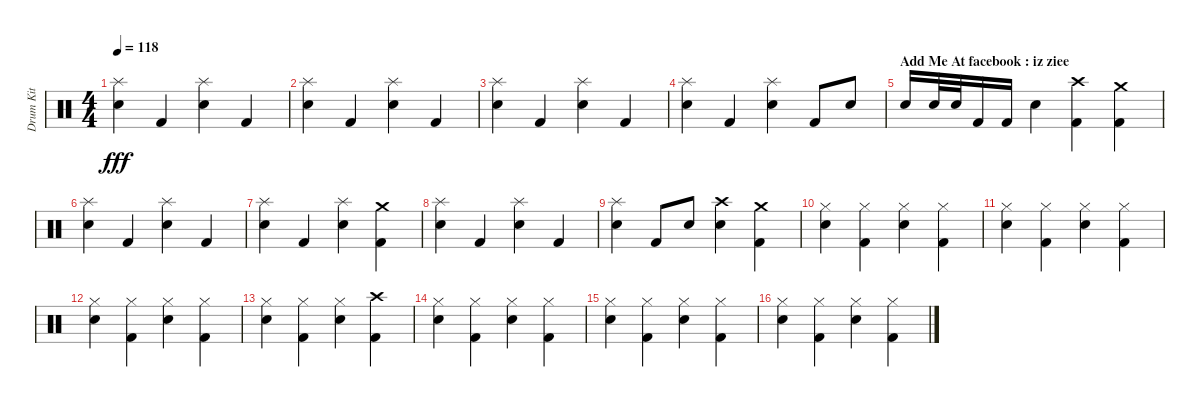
\track ("Drum Kit" "Drum Kit") {instrument percussion}
\staff {score}
\articulation defaults
\ts (4 4)
\tempo 118
\clef neutral
\ks c
("Electric Snare (hit)" "Splash (hit)").4{dy fff} "Kick (hit) 2".4 ("Electric Snare (hit)" "Splash (hit)").4 "Kick (hit) 2".4 |
("Splash (hit)" "Electric Snare (hit)").4 "Kick (hit) 2".4 ("Electric Snare (hit)" "Splash (hit)").4 "Kick (hit) 2".4 |
("Electric Snare (hit)" "Splash (hit)").4 "Kick (hit) 2".4 ("Electric Snare (hit)" "Splash (hit)").4 "Kick (hit) 2".4 |
("Electric Snare (hit)" "Splash (hit)").4 "Kick (hit) 2".4 ("Splash (hit)" "Electric Snare (hit)").4 "Kick (hit) 2".8 "Electric Snare (hit)".8 |
\section ("" "Add Me At facebook : iz ziee")
"Electric Snare (hit)".16 "Electric Snare (hit)".32 "Electric Snare (hit)".32 "Kick (hit) 2".16 "Kick (hit) 2".16 "Electric Snare (hit)".4 ("Kick (hit) 2" "Crash high (hit)").4 ("Crash medium (hit)" "Kick (hit) 2").4 |
("Splash (hit)" "Electric Snare (hit)").4 "Kick (hit) 2".4 ("Electric Snare (hit)" "Splash (hit)").4 "Kick (hit) 2".4 |
("Electric Snare (hit)" "Splash (hit)").4 "Kick (hit) 2".4 ("Splash (hit)" "Electric Snare (hit)").4 ("Kick (hit) 2" "Crash medium (hit)").4 |
("Electric Snare (hit)" "Splash (hit)").4 "Kick (hit) 2".4 ("Splash (hit)" "Electric Snare (hit)").4 "Kick (hit) 2".4 |
("Splash (hit)" "Electric Snare (hit)").4 "Kick (hit) 2".8 "Electric Snare (hit)".8 ("Electric Snare (hit)" "Crash high (hit)").4 ("Crash medium (hit)" "Kick (hit) 2").4 |
("Hi-Hat (closed)" "Electric Snare (hit)").4 ("Hi-Hat (closed)" "Kick (hit) 2").4 ("Hi-Hat (closed)" "Electric Snare (hit)").4 ("Hi-Hat (closed)" "Kick (hit) 2").4 |
("Hi-Hat (closed)" "Electric Snare (hit)").4 ("Hi-Hat (closed)" "Kick (hit) 2").4 ("Hi-Hat (closed)" "Electric Snare (hit)").4 ("Hi-Hat (closed)" "Kick (hit) 2").4 |
("Hi-Hat (closed)" "Electric Snare (hit)").4 ("Hi-Hat (closed)" "Kick (hit) 2").4 ("Hi-Hat (closed)" "Electric Snare (hit)").4 ("Hi-Hat (closed)" "Kick (hit) 2").4 |
("Hi-Hat (closed)" "Electric Snare (hit)").4 ("Hi-Hat (closed)" "Kick (hit) 2").4 ("Hi-Hat (closed)" "Electric Snare (hit)").4 ("Crash high (hit)" "Kick (hit) 2").4 |
("Hi-Hat (closed)" "Electric Snare (hit)").4 ("Hi-Hat (closed)" "Kick (hit) 2").4 ("Hi-Hat (closed)" "Electric Snare (hit)").4 ("Hi-Hat (closed)" "Kick (hit) 2").4 |
("Hi-Hat (closed)" "Electric Snare (hit)").4 ("Hi-Hat (closed)" "Kick (hit) 2").4 ("Hi-Hat (closed)" "Electric Snare (hit)").4 ("Hi-Hat (closed)" "Kick (hit) 2").4 |
("Hi-Hat (closed)" "Electric Snare (hit)").4 ("Hi-Hat (closed)" "Kick (hit) 2").4 ("Electric Snare (hit)" "Hi-Hat (closed)").4 ("Kick (hit) 2" "Hi-Hat (closed)").4
